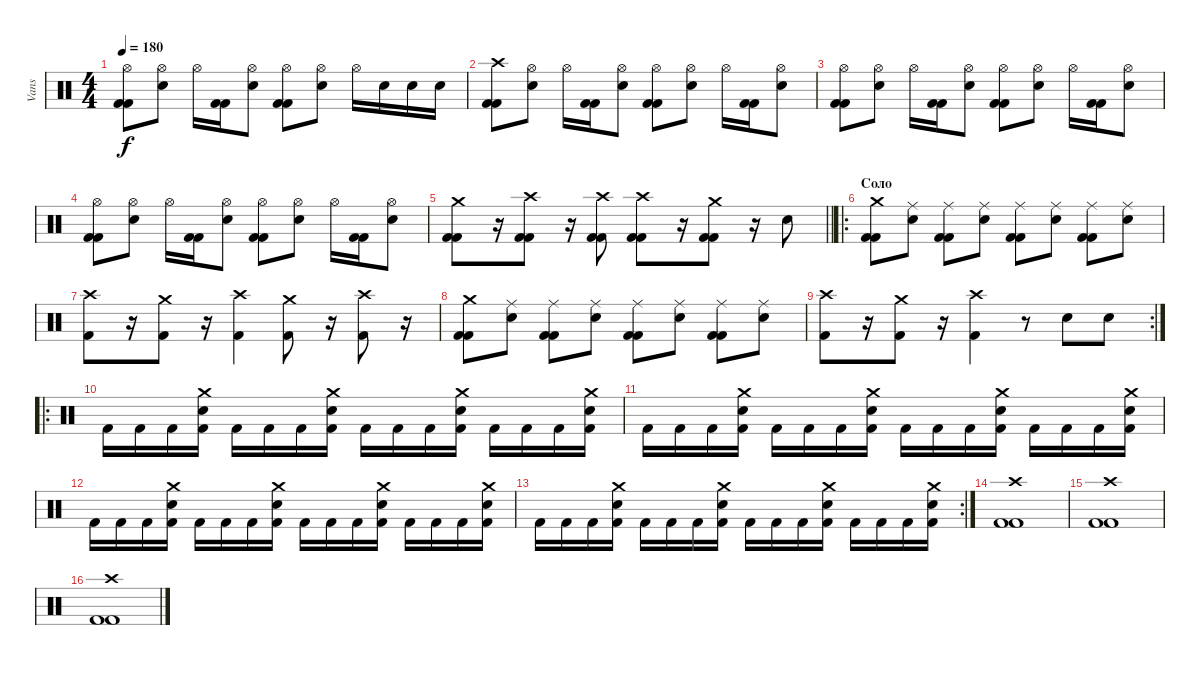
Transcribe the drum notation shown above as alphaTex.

\track ("Vans" "Vans") {instrument percussion}
\staff {score}
\articulation defaults
\ts (4 4)
\tempo 180
\clef neutral
\ks c
("Hi-Hat (open)" "Kick (hit) 2" "Kick (hit) 2").8{dy f} ("Hi-Hat (open)" "Snare (hit) 2").8 "Hi-Hat (open)".16 ("Kick (hit) 2" "Kick (hit) 2").16 ("Hi-Hat (open)" "Snare (hit) 2").8 ("Hi-Hat (open)" "Kick (hit) 2" "Kick (hit) 2").8 ("Hi-Hat (open)" "Snare (hit) 2").8 "Hi-Hat (open)".16 "Snare (hit) 2".16 "Snare (hit) 2".16 "Snare (hit) 2".16 |
("Crash high (hit)" "Kick (hit) 2" "Kick (hit) 2").8 ("Hi-Hat (open)" "Snare (hit) 2").8 "Hi-Hat (open)".16 ("Kick (hit) 2" "Kick (hit) 2").16 ("Hi-Hat (open)" "Snare (hit) 2").8 ("Hi-Hat (open)" "Kick (hit) 2" "Kick (hit) 2").8 ("Hi-Hat (open)" "Snare (hit) 2").8 "Hi-Hat (open)".16 ("Kick (hit) 2" "Kick (hit) 2").16 ("Hi-Hat (open)" "Snare (hit) 2").8 |
("Hi-Hat (open)" "Kick (hit) 2" "Kick (hit) 2").8 ("Hi-Hat (open)" "Snare (hit) 2").8 "Hi-Hat (open)".16 ("Kick (hit) 2" "Kick (hit) 2").16 ("Hi-Hat (open)" "Snare (hit) 2").8 ("Hi-Hat (open)" "Kick (hit) 2" "Kick (hit) 2").8 ("Hi-Hat (open)" "Snare (hit) 2").8 "Hi-Hat (open)".16 ("Kick (hit) 2" "Kick (hit) 2").16 ("Hi-Hat (open)" "Snare (hit) 2").8 |
("Hi-Hat (open)" "Kick (hit) 2" "Kick (hit) 2").8 ("Hi-Hat (open)" "Snare (hit) 2").8 "Hi-Hat (open)".16 ("Kick (hit) 2" "Kick (hit) 2").16 ("Hi-Hat (open)" "Snare (hit) 2").8 ("Hi-Hat (open)" "Kick (hit) 2" "Kick (hit) 2").8 ("Hi-Hat (open)" "Snare (hit) 2").8 "Hi-Hat (open)".16 ("Kick (hit) 2" "Kick (hit) 2").16 ("Hi-Hat (open)" "Snare (hit) 2").8 |
\barLineRight lightlight
("Crash medium (hit)" "Kick (hit) 2" "Kick (hit) 2").8 r.16 ("Crash high (hit)" "Kick (hit) 2" "Kick (hit) 2").8 r.16 ("Crash high (hit)" "Kick (hit) 2" "Kick (hit) 2").8 ("Crash high (hit)" "Kick (hit) 2" "Kick (hit) 2").8 r.16 ("Crash medium (hit)" "Kick (hit) 2" "Kick (hit) 2").8 r.16 "Snare (hit) 2".8 |
\ro
\section ("" "Соло")
("Crash medium (hit)" "Kick (hit) 2" "Kick (hit) 2").8 ("Ride (middle)" "Snare (hit) 2").8 ("Ride (middle)" "Kick (hit) 2" "Kick (hit) 2").8 ("Ride (middle)" "Snare (hit) 2").8 ("Ride (middle)" "Kick (hit) 2" "Kick (hit) 2").8 ("Ride (middle)" "Snare (hit) 2").8 ("Ride (middle)" "Kick (hit) 2" "Kick (hit) 2").8 ("Ride (middle)" "Snare (hit) 2").8 |
("Crash high (hit)" "Kick (hit) 2").8 r.16 ("Crash medium (hit)" "Kick (hit) 2").8 r.16 ("Crash high (hit)" "Kick (hit) 2").4 ("Crash medium (hit)" "Kick (hit) 2").8 r.16 ("Crash high (hit)" "Kick (hit) 2").8 r.16 |
("Crash medium (hit)" "Kick (hit) 2" "Kick (hit) 2").8 ("Ride (middle)" "Snare (hit) 2").8 ("Ride (middle)" "Kick (hit) 2" "Kick (hit) 2").8 ("Ride (middle)" "Snare (hit) 2").8 ("Ride (middle)" "Kick (hit) 2" "Kick (hit) 2").8 ("Ride (middle)" "Snare (hit) 2").8 ("Ride (middle)" "Kick (hit) 2" "Kick (hit) 2").8 ("Ride (middle)" "Snare (hit) 2").8 |
\rc 2
("Crash high (hit)" "Kick (hit) 2").8 r.16 ("Crash medium (hit)" "Kick (hit) 2").8 r.16 ("Crash high (hit)" "Kick (hit) 2").4 r.8 "Snare (hit) 2".8 "Snare (hit) 2".8 |
\ro "Kick (hit) 2".16 "Kick (hit) 2".16 "Kick (hit) 2".16
("Crash medium (hit)" "Kick (hit) 2" "Snare (hit) 2").16 "Kick (hit) 2".16 "Kick (hit) 2".16 "Kick (hit) 2".16 ("Crash medium (hit)" "Kick (hit) 2" "Snare (hit) 2").16 "Kick (hit) 2".16 "Kick (hit) 2".16 "Kick (hit) 2".16 ("Crash medium (hit)" "Kick (hit) 2" "Snare (hit) 2").16 "Kick (hit) 2".16 "Kick (hit) 2".16 "Kick (hit) 2".16 ("Crash medium (hit)" "Kick (hit) 2" "Snare (hit) 2").16 |
"Kick (hit) 2".16 "Kick (hit) 2".16 "Kick (hit) 2".16 ("Crash medium (hit)" "Kick (hit) 2" "Snare (hit) 2").16 "Kick (hit) 2".16 "Kick (hit) 2".16 "Kick (hit) 2".16 ("Crash medium (hit)" "Kick (hit) 2" "Snare (hit) 2").16 "Kick (hit) 2".16 "Kick (hit) 2".16 "Kick (hit) 2".16 ("Crash medium (hit)" "Kick (hit) 2" "Snare (hit) 2").16 "Kick (hit) 2".16 "Kick (hit) 2".16 "Kick (hit) 2".16 ("Crash medium (hit)" "Kick (hit) 2" "Snare (hit) 2").16 |
"Kick (hit) 2".16 "Kick (hit) 2".16 "Kick (hit) 2".16 ("Crash medium (hit)" "Kick (hit) 2" "Snare (hit) 2").16 "Kick (hit) 2".16 "Kick (hit) 2".16 "Kick (hit) 2".16 ("Crash medium (hit)" "Kick (hit) 2" "Snare (hit) 2").16 "Kick (hit) 2".16 "Kick (hit) 2".16 "Kick (hit) 2".16 ("Crash medium (hit)" "Kick (hit) 2" "Snare (hit) 2").16 "Kick (hit) 2".16 "Kick (hit) 2".16 "Kick (hit) 2".16 ("Crash medium (hit)" "Kick (hit) 2" "Snare (hit) 2").16 |
\rc 2 "Kick (hit) 2".16 "Kick (hit) 2".16 "Kick (hit) 2".16
("Crash medium (hit)" "Kick (hit) 2" "Snare (hit) 2").16 "Kick (hit) 2".16 "Kick (hit) 2".16 "Kick (hit) 2".16 ("Crash medium (hit)" "Kick (hit) 2" "Snare (hit) 2").16 "Kick (hit) 2".16 "Kick (hit) 2".16 "Kick (hit) 2".16 ("Crash medium (hit)" "Kick (hit) 2" "Snare (hit) 2").16 "Kick (hit) 2".16 "Kick (hit) 2".16 "Kick (hit) 2".16 ("Crash medium (hit)" "Kick (hit) 2" "Snare (hit) 2").16 |
("Crash high (hit)" "Kick (hit) 2" "Kick (hit) 2").1 |
("Crash high (hit)" "Kick (hit) 2" "Kick (hit) 2").1 |
("Crash high (hit)" "Kick (hit) 2" "Kick (hit) 2").1
